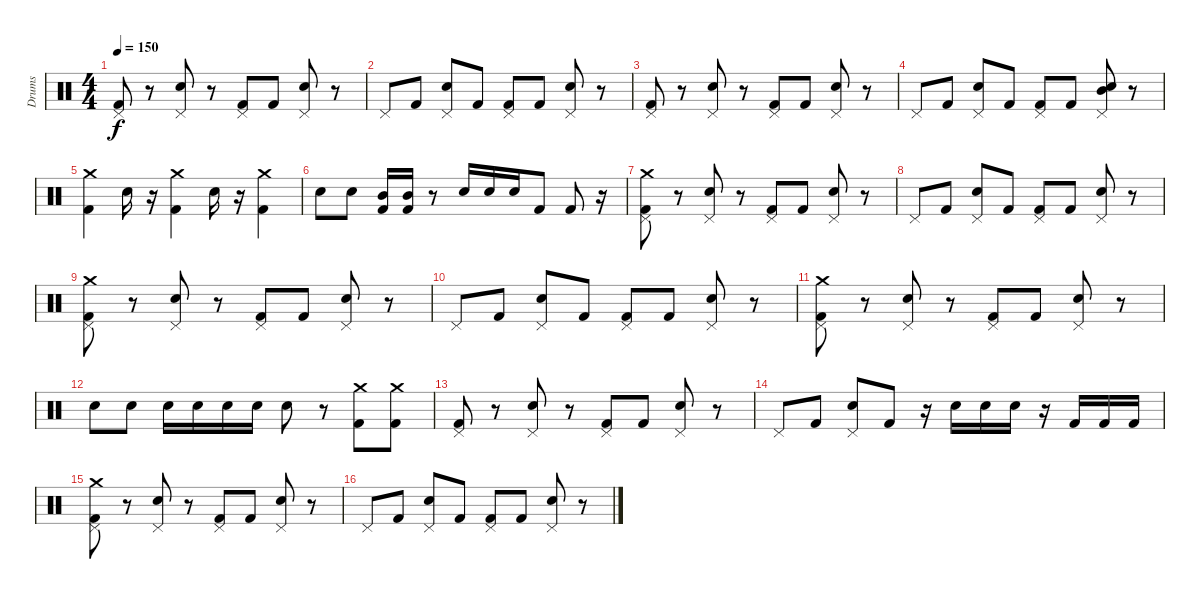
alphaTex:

\track ("Drums" "Drums") {instrument percussion}
\staff {score}
\articulation defaults
\ts (4 4)
\tempo 150
\clef neutral
\ks c
("Kick (hit) 2" "Pedal Hi-Hat (hit)").8{dy f} r.8 ("Pedal Hi-Hat (hit)" "Electric Snare (hit)").8 r.8 ("Kick (hit) 2" "Pedal Hi-Hat (hit)").8 "Kick (hit) 2".8 ("Pedal Hi-Hat (hit)" "Electric Snare (hit)").8 r.8 |
"Pedal Hi-Hat (hit)".8 "Kick (hit) 2".8 ("Pedal Hi-Hat (hit)" "Electric Snare (hit)").8 "Kick (hit) 2".8 ("Kick (hit) 2" "Pedal Hi-Hat (hit)").8 "Kick (hit) 2".8 ("Pedal Hi-Hat (hit)" "Electric Snare (hit)").8 r.8 |
("Kick (hit) 2" "Pedal Hi-Hat (hit)").8 r.8 ("Pedal Hi-Hat (hit)" "Electric Snare (hit)").8 r.8 ("Kick (hit) 2" "Pedal Hi-Hat (hit)").8 "Kick (hit) 2".8 ("Pedal Hi-Hat (hit)" "Electric Snare (hit)").8 r.8 |
"Pedal Hi-Hat (hit)".8 "Kick (hit) 2".8 ("Pedal Hi-Hat (hit)" "Electric Snare (hit)").8 "Kick (hit) 2".8 ("Kick (hit) 2" "Pedal Hi-Hat (hit)").8 "Kick (hit) 2".8 ("Pedal Hi-Hat (hit)" "Mid Tom (hit)" "Electric Snare (hit)").8 r.8 |
("Kick (hit) 2" "Crash medium (hit)").4 "Electric Snare (hit)".16 r.16 ("Kick (hit) 2" "Crash medium (hit)").4 "Electric Snare (hit)".16 r.16 ("Kick (hit) 2" "Crash medium (hit)").4 |
"Electric Snare (hit)".8 "Electric Snare (hit)".8 ("Kick (hit) 2" "Mid Tom (hit)").16 ("Kick (hit) 2" "Mid Tom (hit)").16 r.8 "Electric Snare (hit)".16 "Electric Snare (hit)".16 "Electric Snare (hit)".16 "Kick (hit) 2".8 "Kick (hit) 2".8 r.16 |
("Kick (hit) 2" "Pedal Hi-Hat (hit)" "Crash medium (hit)").8 r.8 ("Pedal Hi-Hat (hit)" "Electric Snare (hit)").8 r.8 ("Kick (hit) 2" "Pedal Hi-Hat (hit)").8 "Kick (hit) 2".8 ("Pedal Hi-Hat (hit)" "Electric Snare (hit)").8 r.8 |
"Pedal Hi-Hat (hit)".8 "Kick (hit) 2".8 ("Pedal Hi-Hat (hit)" "Electric Snare (hit)").8 "Kick (hit) 2".8 ("Kick (hit) 2" "Pedal Hi-Hat (hit)").8 "Kick (hit) 2".8 ("Pedal Hi-Hat (hit)" "Electric Snare (hit)").8 r.8 |
("Kick (hit) 2" "Pedal Hi-Hat (hit)" "Crash medium (hit)").8 r.8 ("Pedal Hi-Hat (hit)" "Electric Snare (hit)").8 r.8 ("Kick (hit) 2" "Pedal Hi-Hat (hit)").8 "Kick (hit) 2".8 ("Pedal Hi-Hat (hit)" "Electric Snare (hit)").8 r.8 |
"Pedal Hi-Hat (hit)".8 "Kick (hit) 2".8 ("Pedal Hi-Hat (hit)" "Electric Snare (hit)").8 "Kick (hit) 2".8 ("Kick (hit) 2" "Pedal Hi-Hat (hit)").8 "Kick (hit) 2".8 ("Pedal Hi-Hat (hit)" "Electric Snare (hit)").8 r.8 |
("Kick (hit) 2" "Pedal Hi-Hat (hit)" "Crash medium (hit)").8 r.8 ("Pedal Hi-Hat (hit)" "Electric Snare (hit)").8 r.8 ("Kick (hit) 2" "Pedal Hi-Hat (hit)").8 "Kick (hit) 2".8 ("Pedal Hi-Hat (hit)" "Electric Snare (hit)").8 r.8 |
"Electric Snare (hit)".8 "Electric Snare (hit)".8 "Electric Snare (hit)".16 "Electric Snare (hit)".16 "Electric Snare (hit)".16 "Electric Snare (hit)".16 "Electric Snare (hit)".8 r.8 ("Kick (hit) 2" "Crash medium (hit)").8 ("Kick (hit) 2" "Crash medium (hit)").8 |
("Kick (hit) 2" "Pedal Hi-Hat (hit)").8 r.8 ("Pedal Hi-Hat (hit)" "Electric Snare (hit)").8 r.8 ("Kick (hit) 2" "Pedal Hi-Hat (hit)").8 "Kick (hit) 2".8 ("Pedal Hi-Hat (hit)" "Electric Snare (hit)").8 r.8 |
"Pedal Hi-Hat (hit)".8 "Kick (hit) 2".8 ("Pedal Hi-Hat (hit)" "Electric Snare (hit)").8 "Kick (hit) 2".8 r.16 "Electric Snare (hit)".16 "Electric Snare (hit)".16 "Electric Snare (hit)".16 r.16 "Kick (hit) 2".16 "Kick (hit) 2".16 "Kick (hit) 2".16 |
("Kick (hit) 2" "Pedal Hi-Hat (hit)" "Crash medium (hit)").8 r.8 ("Pedal Hi-Hat (hit)" "Electric Snare (hit)").8 r.8 ("Kick (hit) 2" "Pedal Hi-Hat (hit)").8 "Kick (hit) 2".8 ("Pedal Hi-Hat (hit)" "Electric Snare (hit)").8 r.8 |
"Pedal Hi-Hat (hit)".8 "Kick (hit) 2".8 ("Pedal Hi-Hat (hit)" "Electric Snare (hit)").8 "Kick (hit) 2".8 ("Kick (hit) 2" "Pedal Hi-Hat (hit)").8 "Kick (hit) 2".8 ("Pedal Hi-Hat (hit)" "Electric Snare (hit)").8 r.8
